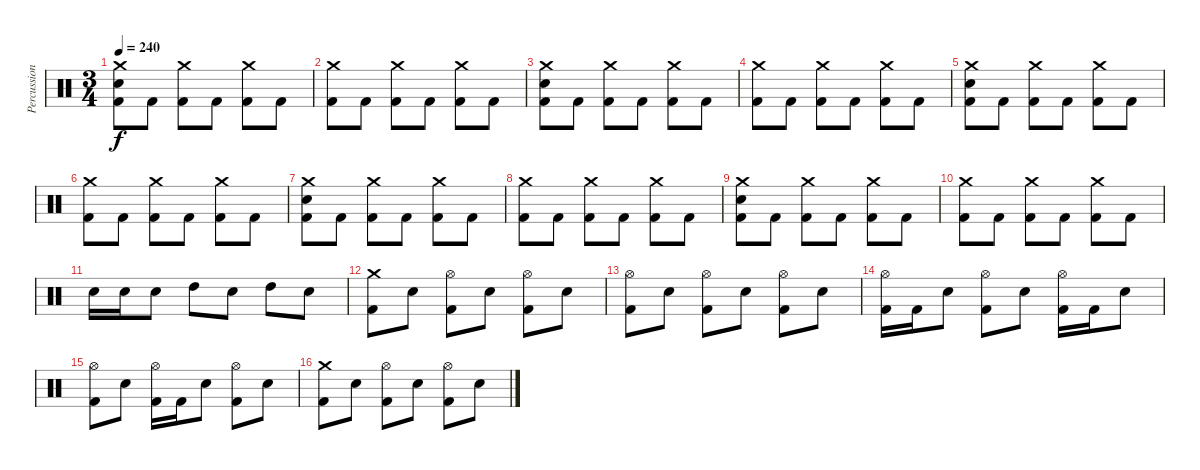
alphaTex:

\track ("Percussion" "Percussion") {instrument percussion}
\staff {score}
\articulation defaults
\ts (3 4)
\tempo 240
\clef neutral
\ks c
("Crash medium (hit)" "Electric Snare (hit)" "Kick (hit) 2").8{dy f} "Kick (hit) 2".8 ("Crash medium (hit)" "Kick (hit) 2").8 "Kick (hit) 2".8 ("Crash medium (hit)" "Kick (hit) 2").8 "Kick (hit) 2".8 |
("Crash medium (hit)" "Kick (hit) 2").8 "Kick (hit) 2".8 ("Crash medium (hit)" "Kick (hit) 2").8 "Kick (hit) 2".8 ("Crash medium (hit)" "Kick (hit) 2").8 "Kick (hit) 2".8 |
("Crash medium (hit)" "Electric Snare (hit)" "Kick (hit) 2").8 "Kick (hit) 2".8 ("Crash medium (hit)" "Kick (hit) 2").8 "Kick (hit) 2".8 ("Crash medium (hit)" "Kick (hit) 2").8 "Kick (hit) 2".8 |
("Crash medium (hit)" "Kick (hit) 2").8 "Kick (hit) 2".8 ("Crash medium (hit)" "Kick (hit) 2").8 "Kick (hit) 2".8 ("Crash medium (hit)" "Kick (hit) 2").8 "Kick (hit) 2".8 |
("Crash medium (hit)" "Electric Snare (hit)" "Kick (hit) 2").8 "Kick (hit) 2".8 ("Crash medium (hit)" "Kick (hit) 2").8 "Kick (hit) 2".8 ("Crash medium (hit)" "Kick (hit) 2").8 "Kick (hit) 2".8 |
("Crash medium (hit)" "Kick (hit) 2").8 "Kick (hit) 2".8 ("Crash medium (hit)" "Kick (hit) 2").8 "Kick (hit) 2".8 ("Crash medium (hit)" "Kick (hit) 2").8 "Kick (hit) 2".8 |
("Crash medium (hit)" "Electric Snare (hit)" "Kick (hit) 2").8 "Kick (hit) 2".8 ("Crash medium (hit)" "Kick (hit) 2").8 "Kick (hit) 2".8 ("Crash medium (hit)" "Kick (hit) 2").8 "Kick (hit) 2".8 |
("Crash medium (hit)" "Kick (hit) 2").8 "Kick (hit) 2".8 ("Crash medium (hit)" "Kick (hit) 2").8 "Kick (hit) 2".8 ("Crash medium (hit)" "Kick (hit) 2").8 "Kick (hit) 2".8 |
("Crash medium (hit)" "Electric Snare (hit)" "Kick (hit) 2").8 "Kick (hit) 2".8 ("Crash medium (hit)" "Kick (hit) 2").8 "Kick (hit) 2".8 ("Crash medium (hit)" "Kick (hit) 2").8 "Kick (hit) 2".8 |
("Crash medium (hit)" "Kick (hit) 2").8 "Kick (hit) 2".8 ("Crash medium (hit)" "Kick (hit) 2").8 "Kick (hit) 2".8 ("Crash medium (hit)" "Kick (hit) 2").8 "Kick (hit) 2".8 |
"Electric Snare (hit)".16 "Electric Snare (hit)".16 "Electric Snare (hit)".8 "High Tom (hit)".8 "Electric Snare (hit)".8 "High Tom (hit)".8 "Electric Snare (hit)".8 |
("Crash medium (hit)" "Kick (hit) 2").8 "Electric Snare (hit)".8 ("Hi-Hat (open)" "Kick (hit) 2").8 "Electric Snare (hit)".8 ("Hi-Hat (open)" "Kick (hit) 2").8 "Electric Snare (hit)".8 |
("Hi-Hat (open)" "Kick (hit) 2").8 "Electric Snare (hit)".8 ("Hi-Hat (open)" "Kick (hit) 2").8 "Electric Snare (hit)".8 ("Hi-Hat (open)" "Kick (hit) 2").8 "Electric Snare (hit)".8 |
("Hi-Hat (open)" "Kick (hit) 2").16 "Kick (hit) 2".16 "Electric Snare (hit)".8 ("Hi-Hat (open)" "Kick (hit) 2").8 "Electric Snare (hit)".8 ("Hi-Hat (open)" "Kick (hit) 2").16 "Kick (hit) 2".16 "Electric Snare (hit)".8 |
("Hi-Hat (open)" "Kick (hit) 2").8 "Electric Snare (hit)".8 ("Hi-Hat (open)" "Kick (hit) 2").16 "Kick (hit) 2".16 "Electric Snare (hit)".8 ("Hi-Hat (open)" "Kick (hit) 2").8 "Electric Snare (hit)".8 |
("Crash medium (hit)" "Kick (hit) 2").8 "Electric Snare (hit)".8 ("Hi-Hat (open)" "Kick (hit) 2").8 "Electric Snare (hit)".8 ("Hi-Hat (open)" "Kick (hit) 2").8 "Electric Snare (hit)".8
